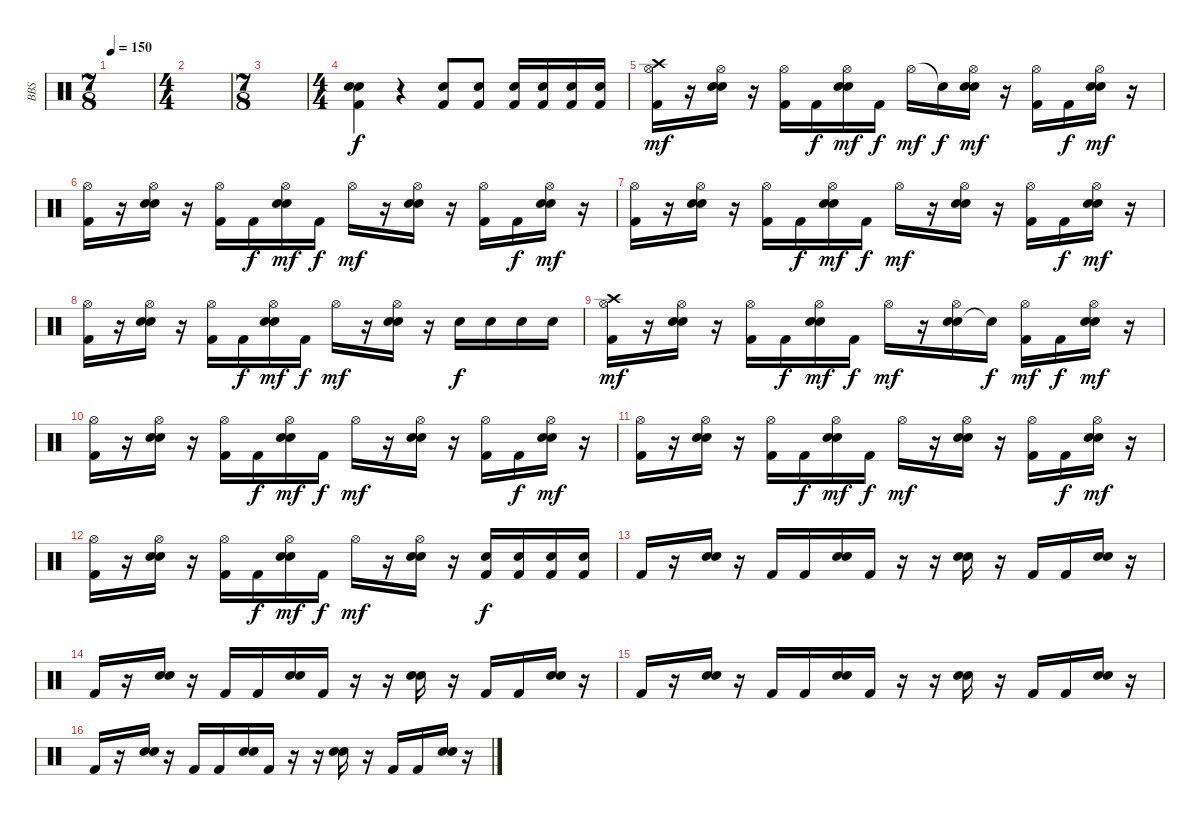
\track ("BBS" "BBS") {instrument percussion}
\staff {score}
\articulation defaults
\ts (7 8)
\tempo 150
\clef neutral
\ks c
|
\ts (4 4)
|
\ts (7 8)
|
\ts (4 4)
("Snare (hit) 2" "Kick (hit) 2" "Electric Snare (hit)").4 r.4 ("Electric Snare (hit)" "Kick (hit) 2").8 ("Electric Snare (hit)" "Kick (hit) 2").8 ("Electric Snare (hit)" "Kick (hit) 2").16 ("Electric Snare (hit)" "Kick (hit) 2").16 ("Electric Snare (hit)" "Kick (hit) 2").16 ("Electric Snare (hit)" "Kick (hit) 2").16 |
("Kick (hit) 2" "Crash high (hit)" "Hi-Hat (open)").16{dy mf} r.16 ("Electric Snare (hit)" "Electric Snare (hit)" "Hi-Hat (open)").16 r.16 ("Kick (hit) 2" "Hi-Hat (open)").16 "Kick (hit) 2".16{dy f} ("Electric Snare (hit)" "Electric Snare (hit)" "Hi-Hat (open)").16{dy mf} "Kick (hit) 2".16{dy f} "Hi-Hat (open)".16{dy mf} "Snare (hit)"{t}.16{dy f} ("Electric Snare (hit)" "Electric Snare (hit)" "Hi-Hat (open)").16{dy mf} r.16 ("Kick (hit) 2" "Hi-Hat (open)").16 "Kick (hit) 2".16{dy f} ("Electric Snare (hit)" "Electric Snare (hit)" "Hi-Hat (open)").16{dy mf} r.16 |
("Kick (hit) 2" "Hi-Hat (open)").16 r.16 ("Electric Snare (hit)" "Electric Snare (hit)" "Hi-Hat (open)").16 r.16 ("Kick (hit) 2" "Hi-Hat (open)").16 "Kick (hit) 2".16{dy f} ("Electric Snare (hit)" "Electric Snare (hit)" "Hi-Hat (open)").16{dy mf} "Kick (hit) 2".16{dy f} "Hi-Hat (open)".16{dy mf} r.16 ("Electric Snare (hit)" "Electric Snare (hit)" "Hi-Hat (open)").16 r.16 ("Kick (hit) 2" "Hi-Hat (open)").16 "Kick (hit) 2".16{dy f} ("Electric Snare (hit)" "Electric Snare (hit)" "Hi-Hat (open)").16{dy mf} r.16 |
("Kick (hit) 2" "Hi-Hat (open)").16 r.16 ("Electric Snare (hit)" "Electric Snare (hit)" "Hi-Hat (open)").16 r.16 ("Kick (hit) 2" "Hi-Hat (open)").16 "Kick (hit) 2".16{dy f} ("Electric Snare (hit)" "Electric Snare (hit)" "Hi-Hat (open)").16{dy mf} "Kick (hit) 2".16{dy f} "Hi-Hat (open)".16{dy mf} r.16 ("Electric Snare (hit)" "Electric Snare (hit)" "Hi-Hat (open)").16 r.16 ("Kick (hit) 2" "Hi-Hat (open)").16 "Kick (hit) 2".16{dy f} ("Electric Snare (hit)" "Electric Snare (hit)" "Hi-Hat (open)").16{dy mf} r.16 |
("Kick (hit) 2" "Hi-Hat (open)").16 r.16 ("Electric Snare (hit)" "Electric Snare (hit)" "Hi-Hat (open)").16 r.16 ("Kick (hit) 2" "Hi-Hat (open)").16 "Kick (hit) 2".16{dy f} ("Electric Snare (hit)" "Electric Snare (hit)" "Hi-Hat (open)").16{dy mf} "Kick (hit) 2".16{dy f} "Hi-Hat (open)".16{dy mf} r.16 ("Electric Snare (hit)" "Electric Snare (hit)" "Hi-Hat (open)").16 r.16 "Electric Snare (hit)".16{dy f} "Electric Snare (hit)".16 "Electric Snare (hit)".16 "Electric Snare (hit)".16 |
("Kick (hit) 2" "Crash high (hit)" "Hi-Hat (open)").16{dy mf} r.16 ("Electric Snare (hit)" "Electric Snare (hit)" "Hi-Hat (open)").16 r.16 ("Kick (hit) 2" "Hi-Hat (open)").16 "Kick (hit) 2".16{dy f} ("Electric Snare (hit)" "Electric Snare (hit)" "Hi-Hat (open)").16{dy mf} "Kick (hit) 2".16{dy f} "Hi-Hat (open)".16{dy mf} r.16 ("Electric Snare (hit)" "Electric Snare (hit)" "Hi-Hat (open)").16 "Snare (hit)"{t}.16{dy f} ("Kick (hit) 2" "Hi-Hat (open)").16{dy mf} "Kick (hit) 2".16{dy f} ("Electric Snare (hit)" "Electric Snare (hit)" "Hi-Hat (open)").16{dy mf} r.16 |
("Kick (hit) 2" "Hi-Hat (open)").16 r.16 ("Electric Snare (hit)" "Electric Snare (hit)" "Hi-Hat (open)").16 r.16 ("Kick (hit) 2" "Hi-Hat (open)").16 "Kick (hit) 2".16{dy f} ("Electric Snare (hit)" "Electric Snare (hit)" "Hi-Hat (open)").16{dy mf} "Kick (hit) 2".16{dy f} "Hi-Hat (open)".16{dy mf} r.16 ("Electric Snare (hit)" "Electric Snare (hit)" "Hi-Hat (open)").16 r.16 ("Kick (hit) 2" "Hi-Hat (open)").16 "Kick (hit) 2".16{dy f} ("Electric Snare (hit)" "Electric Snare (hit)" "Hi-Hat (open)").16{dy mf} r.16 |
("Kick (hit) 2" "Hi-Hat (open)").16 r.16 ("Electric Snare (hit)" "Electric Snare (hit)" "Hi-Hat (open)").16 r.16 ("Kick (hit) 2" "Hi-Hat (open)").16 "Kick (hit) 2".16{dy f} ("Electric Snare (hit)" "Electric Snare (hit)" "Hi-Hat (open)").16{dy mf} "Kick (hit) 2".16{dy f} "Hi-Hat (open)".16{dy mf} r.16 ("Electric Snare (hit)" "Electric Snare (hit)" "Hi-Hat (open)").16 r.16 ("Kick (hit) 2" "Hi-Hat (open)").16 "Kick (hit) 2".16{dy f} ("Electric Snare (hit)" "Electric Snare (hit)" "Hi-Hat (open)").16{dy mf} r.16 |
("Kick (hit) 2" "Hi-Hat (open)").16 r.16 ("Electric Snare (hit)" "Electric Snare (hit)" "Hi-Hat (open)").16 r.16 ("Kick (hit) 2" "Hi-Hat (open)").16 "Kick (hit) 2".16{dy f} ("Electric Snare (hit)" "Electric Snare (hit)" "Hi-Hat (open)").16{dy mf} "Kick (hit) 2".16{dy f} "Hi-Hat (open)".16{dy mf} r.16 ("Electric Snare (hit)" "Electric Snare (hit)" "Hi-Hat (open)").16 r.16 ("Kick (hit) 2" "Electric Snare (hit)").16{dy f} ("Kick (hit) 2" "Electric Snare (hit)").16 ("Kick (hit) 2" "Electric Snare (hit)").16 ("Kick (hit) 2" "Electric Snare (hit)").16 |
"Kick (hit) 2".16 r.16 ("Electric Snare (hit)" "Electric Snare (hit)").16 r.16 "Kick (hit) 2".16 "Kick (hit) 2".16 ("Electric Snare (hit)" "Electric Snare (hit)").16 "Kick (hit) 2".16 r.16 r.16 ("Electric Snare (hit)" "Electric Snare (hit)").16 r.16 "Kick (hit) 2".16 "Kick (hit) 2".16 ("Electric Snare (hit)" "Electric Snare (hit)").16 r.16 |
"Kick (hit) 2".16 r.16 ("Electric Snare (hit)" "Electric Snare (hit)").16 r.16 "Kick (hit) 2".16 "Kick (hit) 2".16 ("Electric Snare (hit)" "Electric Snare (hit)").16 "Kick (hit) 2".16 r.16 r.16 ("Electric Snare (hit)" "Electric Snare (hit)").16 r.16 "Kick (hit) 2".16 "Kick (hit) 2".16 ("Electric Snare (hit)" "Electric Snare (hit)").16 r.16 |
"Kick (hit) 2".16 r.16 ("Electric Snare (hit)" "Electric Snare (hit)").16 r.16 "Kick (hit) 2".16 "Kick (hit) 2".16 ("Electric Snare (hit)" "Electric Snare (hit)").16 "Kick (hit) 2".16 r.16 r.16 ("Electric Snare (hit)" "Electric Snare (hit)").16 r.16 "Kick (hit) 2".16 "Kick (hit) 2".16 ("Electric Snare (hit)" "Electric Snare (hit)").16 r.16 |
"Kick (hit) 2".16 r.16 ("Electric Snare (hit)" "Electric Snare (hit)").16 r.16 "Kick (hit) 2".16 "Kick (hit) 2".16 ("Electric Snare (hit)" "Electric Snare (hit)").16 "Kick (hit) 2".16 r.16 r.16 ("Electric Snare (hit)" "Electric Snare (hit)").16 r.16 "Kick (hit) 2".16 "Kick (hit) 2".16 ("Electric Snare (hit)" "Electric Snare (hit)").16 r.16
